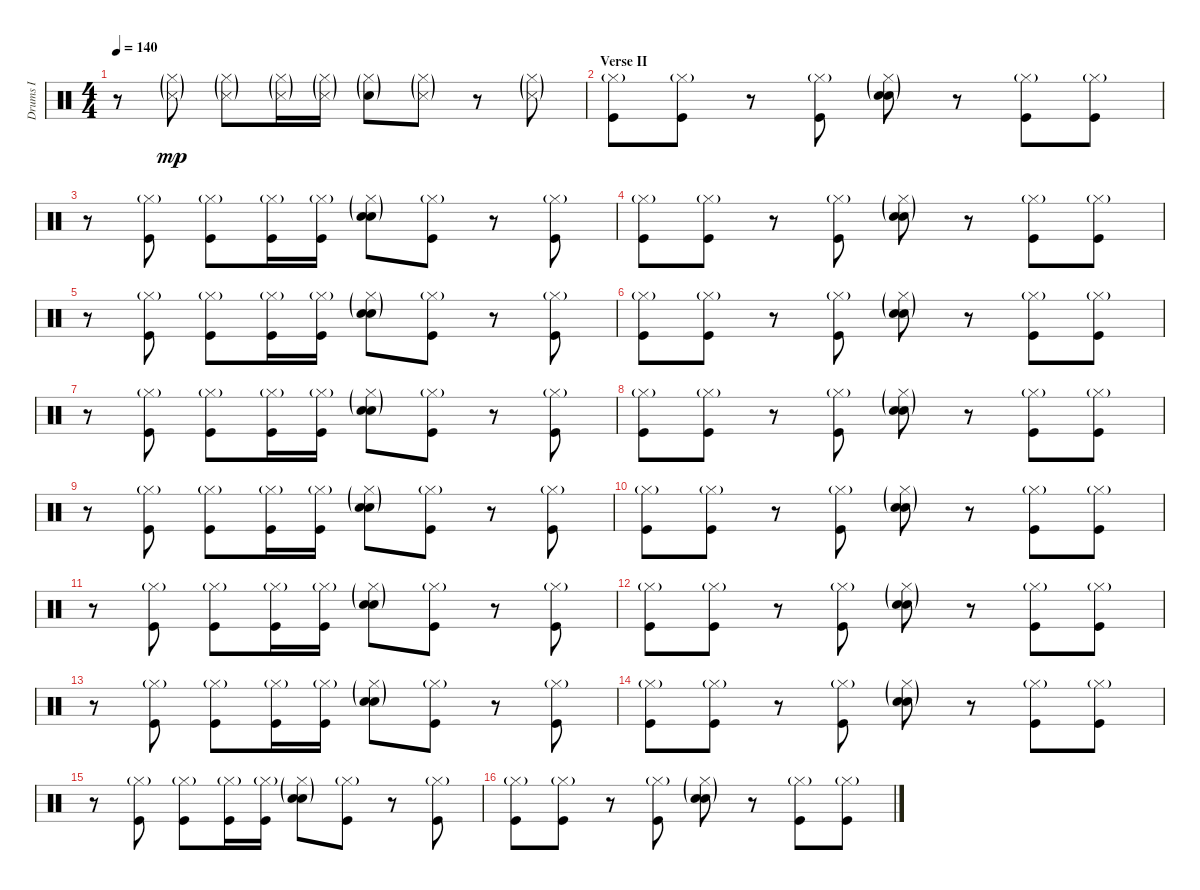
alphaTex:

\track ("Drums I" "Drums I") {instrument percussion}
\staff {score}
\articulation defaults
\ts (4 4)
\tempo 140
\clef neutral
\ks c
r.8{dy mp} ("Hi-Hat (closed)"{g} "Snare (side stick) 3"{g}).8 ("Hi-Hat (closed)"{g} "Snare (side stick) 3"{g}).8 ("Hi-Hat (closed)"{g} "Snare (side stick) 3"{g}).16 ("Hi-Hat (closed)"{g} "Snare (side stick) 3"{g}).16 ("Hi-Hat (closed)"{g} "Hand Clap (hit)"{g}).8 ("Hi-Hat (closed)"{g} "Snare (side stick) 3"{g}).8 r.8 ("Hi-Hat (closed)"{g} "Snare (side stick) 3"{g}).8 |
\section ("" "Verse II")
("Hi-Hat (closed)"{g} "Kick (hit)").8 ("Hi-Hat (closed)"{g} "Kick (hit)").8 r.8 ("Hi-Hat (closed)"{g} "Kick (hit)").8 ("Hi-Hat (closed)"{g} "Snare (hit) 2"{g} "Hand Clap (hit)").8 r.8 ("Hi-Hat (closed)"{g} "Kick (hit)").8 ("Hi-Hat (closed)"{g} "Kick (hit)").8 |
r.8 ("Hi-Hat (closed)"{g} "Kick (hit)").8 ("Hi-Hat (closed)"{g} "Kick (hit)").8 ("Hi-Hat (closed)"{g} "Kick (hit)").16 ("Hi-Hat (closed)"{g} "Kick (hit)").16 ("Hi-Hat (closed)"{g} "Snare (hit) 2"{g} "Hand Clap (hit)").8 ("Hi-Hat (closed)"{g} "Kick (hit)").8 r.8 ("Hi-Hat (closed)"{g} "Kick (hit)").8 |
("Hi-Hat (closed)"{g} "Kick (hit)").8 ("Hi-Hat (closed)"{g} "Kick (hit)").8 r.8 ("Hi-Hat (closed)"{g} "Kick (hit)").8 ("Hi-Hat (closed)"{g} "Snare (hit) 2"{g} "Hand Clap (hit)").8 r.8 ("Hi-Hat (closed)"{g} "Kick (hit)").8 ("Hi-Hat (closed)"{g} "Kick (hit)").8 |
r.8 ("Hi-Hat (closed)"{g} "Kick (hit)").8 ("Hi-Hat (closed)"{g} "Kick (hit)").8 ("Hi-Hat (closed)"{g} "Kick (hit)").16 ("Hi-Hat (closed)"{g} "Kick (hit)").16 ("Hi-Hat (closed)"{g} "Snare (hit) 2"{g} "Hand Clap (hit)").8 ("Hi-Hat (closed)"{g} "Kick (hit)").8 r.8 ("Hi-Hat (closed)"{g} "Kick (hit)").8 |
("Hi-Hat (closed)"{g} "Kick (hit)").8 ("Hi-Hat (closed)"{g} "Kick (hit)").8 r.8 ("Hi-Hat (closed)"{g} "Kick (hit)").8 ("Hi-Hat (closed)"{g} "Snare (hit) 2"{g} "Hand Clap (hit)").8 r.8 ("Hi-Hat (closed)"{g} "Kick (hit)").8 ("Hi-Hat (closed)"{g} "Kick (hit)").8 |
r.8 ("Hi-Hat (closed)"{g} "Kick (hit)").8 ("Hi-Hat (closed)"{g} "Kick (hit)").8 ("Hi-Hat (closed)"{g} "Kick (hit)").16 ("Hi-Hat (closed)"{g} "Kick (hit)").16 ("Hi-Hat (closed)"{g} "Snare (hit) 2"{g} "Hand Clap (hit)").8 ("Hi-Hat (closed)"{g} "Kick (hit)").8 r.8 ("Hi-Hat (closed)"{g} "Kick (hit)").8 |
("Hi-Hat (closed)"{g} "Kick (hit)").8 ("Hi-Hat (closed)"{g} "Kick (hit)").8 r.8 ("Hi-Hat (closed)"{g} "Kick (hit)").8 ("Hi-Hat (closed)"{g} "Snare (hit) 2"{g} "Hand Clap (hit)").8 r.8 ("Hi-Hat (closed)"{g} "Kick (hit)").8 ("Hi-Hat (closed)"{g} "Kick (hit)").8 |
r.8 ("Hi-Hat (closed)"{g} "Kick (hit)").8 ("Hi-Hat (closed)"{g} "Kick (hit)").8 ("Hi-Hat (closed)"{g} "Kick (hit)").16 ("Hi-Hat (closed)"{g} "Kick (hit)").16 ("Hi-Hat (closed)"{g} "Snare (hit) 2"{g} "Hand Clap (hit)").8 ("Hi-Hat (closed)"{g} "Kick (hit)").8 r.8 ("Hi-Hat (closed)"{g} "Kick (hit)").8 |
("Hi-Hat (closed)"{g} "Kick (hit)").8 ("Hi-Hat (closed)"{g} "Kick (hit)").8 r.8 ("Hi-Hat (closed)"{g} "Kick (hit)").8 ("Hi-Hat (closed)"{g} "Snare (hit) 2"{g} "Hand Clap (hit)").8 r.8 ("Hi-Hat (closed)"{g} "Kick (hit)").8 ("Hi-Hat (closed)"{g} "Kick (hit)").8 |
r.8 ("Hi-Hat (closed)"{g} "Kick (hit)").8 ("Hi-Hat (closed)"{g} "Kick (hit)").8 ("Hi-Hat (closed)"{g} "Kick (hit)").16 ("Hi-Hat (closed)"{g} "Kick (hit)").16 ("Hi-Hat (closed)"{g} "Snare (hit) 2"{g} "Hand Clap (hit)").8 ("Hi-Hat (closed)"{g} "Kick (hit)").8 r.8 ("Hi-Hat (closed)"{g} "Kick (hit)").8 |
("Hi-Hat (closed)"{g} "Kick (hit)").8 ("Hi-Hat (closed)"{g} "Kick (hit)").8 r.8 ("Hi-Hat (closed)"{g} "Kick (hit)").8 ("Hi-Hat (closed)"{g} "Snare (hit) 2"{g} "Hand Clap (hit)").8 r.8 ("Hi-Hat (closed)"{g} "Kick (hit)").8 ("Hi-Hat (closed)"{g} "Kick (hit)").8 |
r.8 ("Hi-Hat (closed)"{g} "Kick (hit)").8 ("Hi-Hat (closed)"{g} "Kick (hit)").8 ("Hi-Hat (closed)"{g} "Kick (hit)").16 ("Hi-Hat (closed)"{g} "Kick (hit)").16 ("Hi-Hat (closed)"{g} "Snare (hit) 2"{g} "Hand Clap (hit)").8 ("Hi-Hat (closed)"{g} "Kick (hit)").8 r.8 ("Hi-Hat (closed)"{g} "Kick (hit)").8 |
("Hi-Hat (closed)"{g} "Kick (hit)").8 ("Hi-Hat (closed)"{g} "Kick (hit)").8 r.8 ("Hi-Hat (closed)"{g} "Kick (hit)").8 ("Hi-Hat (closed)"{g} "Snare (hit) 2"{g} "Hand Clap (hit)").8 r.8 ("Hi-Hat (closed)"{g} "Kick (hit)").8 ("Hi-Hat (closed)"{g} "Kick (hit)").8 |
r.8 ("Hi-Hat (closed)"{g} "Kick (hit)").8 ("Hi-Hat (closed)"{g} "Kick (hit)").8 ("Hi-Hat (closed)"{g} "Kick (hit)").16 ("Hi-Hat (closed)"{g} "Kick (hit)").16 ("Hi-Hat (closed)"{g} "Snare (hit) 2"{g} "Hand Clap (hit)").8 ("Hi-Hat (closed)"{g} "Kick (hit)").8 r.8 ("Hi-Hat (closed)"{g} "Kick (hit)").8 |
("Hi-Hat (closed)"{g} "Kick (hit)").8 ("Hi-Hat (closed)"{g} "Kick (hit)").8 r.8 ("Hi-Hat (closed)"{g} "Kick (hit)").8 ("Hi-Hat (closed)"{g} "Snare (hit) 2"{g} "Hand Clap (hit)").8 r.8 ("Hi-Hat (closed)"{g} "Kick (hit)").8 ("Hi-Hat (closed)"{g} "Kick (hit)").8
